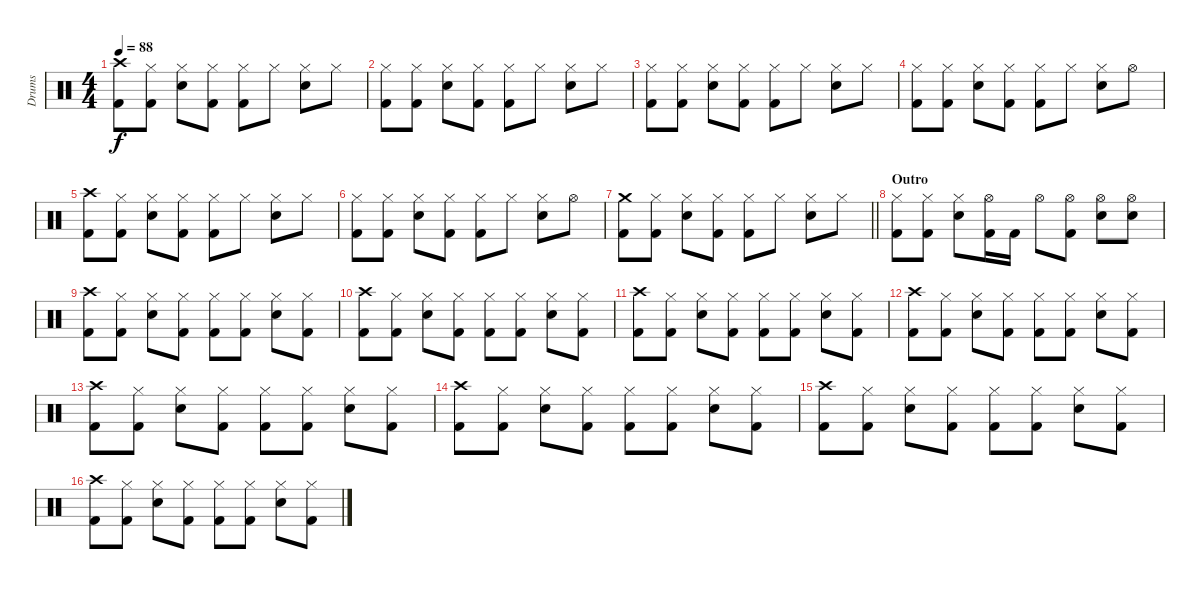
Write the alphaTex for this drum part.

\track ("Drums" "Drums") {instrument percussion}
\staff {score}
\articulation defaults
\ts (4 4)
\tempo 88
\clef neutral
\ks c
("Crash high (hit)" "Kick (hit) 2").8{dy f} ("Hi-Hat (closed)" "Kick (hit) 2").8 ("Hi-Hat (closed)" "Snare (hit) 2").8 ("Hi-Hat (closed)" "Kick (hit) 2").8 ("Hi-Hat (closed)" "Kick (hit) 2").8 "Hi-Hat (closed)".8 ("Hi-Hat (closed)" "Snare (hit) 2").8 "Hi-Hat (closed)".8 |
("Hi-Hat (closed)" "Kick (hit) 2").8 ("Hi-Hat (closed)" "Kick (hit) 2").8 ("Hi-Hat (closed)" "Snare (hit) 2").8 ("Hi-Hat (closed)" "Kick (hit) 2").8 ("Hi-Hat (closed)" "Kick (hit) 2").8 "Hi-Hat (closed)".8 ("Hi-Hat (closed)" "Snare (hit) 2").8 "Hi-Hat (closed)".8 |
("Hi-Hat (closed)" "Kick (hit) 2").8 ("Hi-Hat (closed)" "Kick (hit) 2").8 ("Hi-Hat (closed)" "Snare (hit) 2").8 ("Hi-Hat (closed)" "Kick (hit) 2").8 ("Hi-Hat (closed)" "Kick (hit) 2").8 "Hi-Hat (closed)".8 ("Hi-Hat (closed)" "Snare (hit) 2").8 "Hi-Hat (closed)".8 |
("Hi-Hat (closed)" "Kick (hit) 2").8 ("Hi-Hat (closed)" "Kick (hit) 2").8 ("Hi-Hat (closed)" "Snare (hit) 2").8 ("Hi-Hat (closed)" "Kick (hit) 2").8 ("Hi-Hat (closed)" "Kick (hit) 2").8 "Hi-Hat (closed)".8 ("Hi-Hat (closed)" "Snare (hit) 2").8 "Hi-Hat (open)".8 |
("Crash high (hit)" "Kick (hit) 2").8 ("Hi-Hat (closed)" "Kick (hit) 2").8 ("Hi-Hat (closed)" "Snare (hit) 2").8 ("Hi-Hat (closed)" "Kick (hit) 2").8 ("Hi-Hat (closed)" "Kick (hit) 2").8 "Hi-Hat (closed)".8 ("Hi-Hat (closed)" "Snare (hit) 2").8 "Hi-Hat (closed)".8 |
("Hi-Hat (closed)" "Kick (hit) 2").8 ("Hi-Hat (closed)" "Kick (hit) 2").8 ("Hi-Hat (closed)" "Snare (hit) 2").8 ("Hi-Hat (closed)" "Kick (hit) 2").8 ("Hi-Hat (closed)" "Kick (hit) 2").8 "Hi-Hat (closed)".8 ("Hi-Hat (closed)" "Snare (hit) 2").8 "Hi-Hat (open)".8 |
\barLineRight lightlight
("Crash medium (hit)" "Kick (hit) 2").8 ("Hi-Hat (closed)" "Kick (hit) 2").8 ("Hi-Hat (closed)" "Snare (hit) 2").8 ("Hi-Hat (closed)" "Kick (hit) 2").8 ("Hi-Hat (closed)" "Kick (hit) 2").8 "Hi-Hat (closed)".8 ("Hi-Hat (closed)" "Snare (hit) 2").8 "Hi-Hat (closed)".8 |
\section ("" "Outro")
("Hi-Hat (closed)" "Kick (hit) 2").8 ("Hi-Hat (closed)" "Kick (hit) 2").8 ("Hi-Hat (closed)" "Snare (hit) 2").8 ("Hi-Hat (open)" "Kick (hit) 2").16 "Kick (hit) 2".16 "Hi-Hat (open)".8 ("Hi-Hat (open)" "Kick (hit) 2").8 ("Hi-Hat (open)" "Snare (hit) 2").8 ("Hi-Hat (open)" "Snare (hit) 2").8 |
("Crash high (hit)" "Kick (hit) 2").8 ("Hi-Hat (closed)" "Kick (hit) 2").8 ("Hi-Hat (closed)" "Snare (hit) 2").8 ("Hi-Hat (closed)" "Kick (hit) 2").8 ("Hi-Hat (closed)" "Kick (hit) 2").8 ("Hi-Hat (closed)" "Kick (hit) 2").8 ("Hi-Hat (closed)" "Snare (hit) 2").8 ("Hi-Hat (closed)" "Kick (hit) 2").8 |
("Crash high (hit)" "Kick (hit) 2").8 ("Hi-Hat (closed)" "Kick (hit) 2").8 ("Hi-Hat (closed)" "Snare (hit) 2").8 ("Hi-Hat (closed)" "Kick (hit) 2").8 ("Hi-Hat (closed)" "Kick (hit) 2").8 ("Hi-Hat (closed)" "Kick (hit) 2").8 ("Hi-Hat (closed)" "Snare (hit) 2").8 ("Hi-Hat (closed)" "Kick (hit) 2").8 |
("Crash high (hit)" "Kick (hit) 2").8 ("Hi-Hat (closed)" "Kick (hit) 2").8 ("Hi-Hat (closed)" "Snare (hit) 2").8 ("Hi-Hat (closed)" "Kick (hit) 2").8 ("Hi-Hat (closed)" "Kick (hit) 2").8 ("Hi-Hat (closed)" "Kick (hit) 2").8 ("Hi-Hat (closed)" "Snare (hit) 2").8 ("Hi-Hat (closed)" "Kick (hit) 2").8 |
("Crash high (hit)" "Kick (hit) 2").8 ("Hi-Hat (closed)" "Kick (hit) 2").8 ("Hi-Hat (closed)" "Snare (hit) 2").8 ("Hi-Hat (closed)" "Kick (hit) 2").8 ("Hi-Hat (closed)" "Kick (hit) 2").8 ("Hi-Hat (closed)" "Kick (hit) 2").8 ("Hi-Hat (closed)" "Snare (hit) 2").8 ("Hi-Hat (closed)" "Kick (hit) 2").8 |
("Crash high (hit)" "Kick (hit) 2").8 ("Hi-Hat (closed)" "Kick (hit) 2").8 ("Hi-Hat (closed)" "Snare (hit) 2").8 ("Hi-Hat (closed)" "Kick (hit) 2").8 ("Hi-Hat (closed)" "Kick (hit) 2").8 ("Hi-Hat (closed)" "Kick (hit) 2").8 ("Hi-Hat (closed)" "Snare (hit) 2").8 ("Hi-Hat (closed)" "Kick (hit) 2").8 |
("Crash high (hit)" "Kick (hit) 2").8 ("Hi-Hat (closed)" "Kick (hit) 2").8 ("Hi-Hat (closed)" "Snare (hit) 2").8 ("Hi-Hat (closed)" "Kick (hit) 2").8 ("Hi-Hat (closed)" "Kick (hit) 2").8 ("Hi-Hat (closed)" "Kick (hit) 2").8 ("Hi-Hat (closed)" "Snare (hit) 2").8 ("Hi-Hat (closed)" "Kick (hit) 2").8 |
("Crash high (hit)" "Kick (hit) 2").8 ("Hi-Hat (closed)" "Kick (hit) 2").8 ("Hi-Hat (closed)" "Snare (hit) 2").8 ("Hi-Hat (closed)" "Kick (hit) 2").8 ("Hi-Hat (closed)" "Kick (hit) 2").8 ("Hi-Hat (closed)" "Kick (hit) 2").8 ("Hi-Hat (closed)" "Snare (hit) 2").8 ("Hi-Hat (closed)" "Kick (hit) 2").8 |
("Crash high (hit)" "Kick (hit) 2").8 ("Hi-Hat (closed)" "Kick (hit) 2").8 ("Hi-Hat (closed)" "Snare (hit) 2").8 ("Hi-Hat (closed)" "Kick (hit) 2").8 ("Hi-Hat (closed)" "Kick (hit) 2").8 ("Hi-Hat (closed)" "Kick (hit) 2").8 ("Hi-Hat (closed)" "Snare (hit) 2").8 ("Hi-Hat (closed)" "Kick (hit) 2").8
